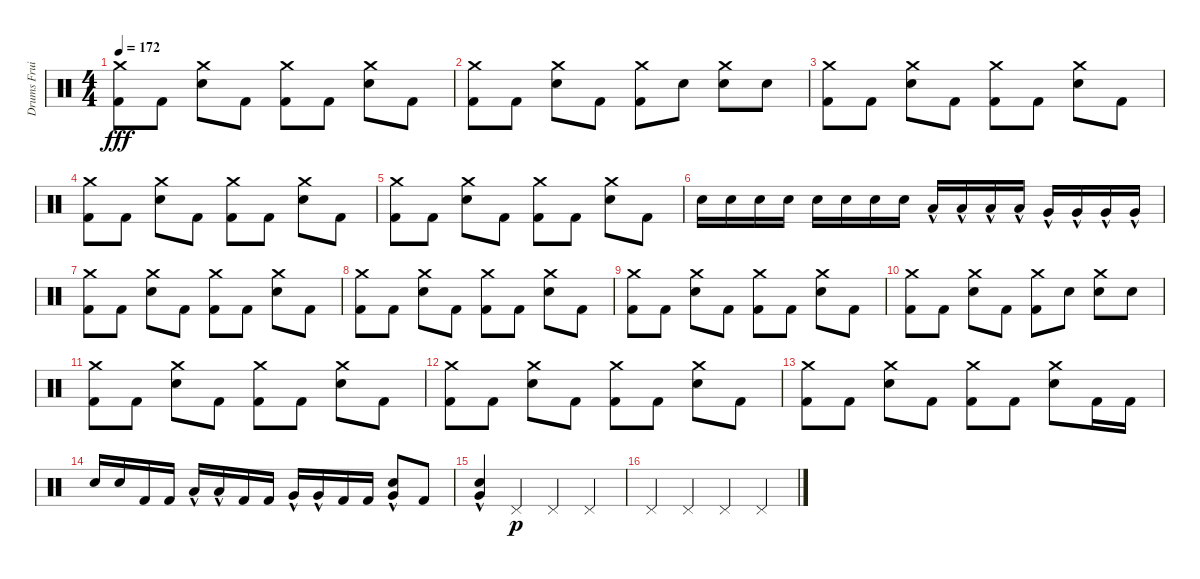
\track ("Drums Fruity Lexia" "Drums Frui") {instrument percussion}
\staff {score}
\articulation defaults
\ts (4 4)
\tempo 172
\clef neutral
\ks c
("Crash medium (hit)" "Kick (hit) 2").8{dy fff} "Kick (hit) 2".8 ("Crash medium (hit)" "Electric Snare (hit)").8 "Kick (hit) 2".8 ("Crash medium (hit)" "Kick (hit) 2").8 "Kick (hit) 2".8 ("Crash medium (hit)" "Electric Snare (hit)").8 "Kick (hit) 2".8 |
("Crash medium (hit)" "Kick (hit) 2").8 "Kick (hit) 2".8 ("Crash medium (hit)" "Electric Snare (hit)").8 "Kick (hit) 2".8 ("Crash medium (hit)" "Kick (hit) 2").8 "Electric Snare (hit)".8 ("Crash medium (hit)" "Electric Snare (hit)").8 "Electric Snare (hit)".8 |
("Crash medium (hit)" "Kick (hit) 2").8 "Kick (hit) 2".8 ("Crash medium (hit)" "Electric Snare (hit)").8 "Kick (hit) 2".8 ("Crash medium (hit)" "Kick (hit) 2").8 "Kick (hit) 2".8 ("Crash medium (hit)" "Electric Snare (hit)").8 "Kick (hit) 2".8 |
("Crash medium (hit)" "Kick (hit) 2").8 "Kick (hit) 2".8 ("Crash medium (hit)" "Electric Snare (hit)").8 "Kick (hit) 2".8 ("Crash medium (hit)" "Kick (hit) 2").8 "Kick (hit) 2".8 ("Crash medium (hit)" "Electric Snare (hit)").8 "Kick (hit) 2".8 |
("Crash medium (hit)" "Kick (hit) 2").8 "Kick (hit) 2".8 ("Crash medium (hit)" "Electric Snare (hit)").8 "Kick (hit) 2".8 ("Crash medium (hit)" "Kick (hit) 2").8 "Kick (hit) 2".8 ("Crash medium (hit)" "Electric Snare (hit)").8 "Kick (hit) 2".8 |
"Electric Snare (hit)".16 "Electric Snare (hit)".16 "Electric Snare (hit)".16 "Electric Snare (hit)".16 "Electric Snare (hit)".16 "Electric Snare (hit)".16 "Electric Snare (hit)".16 "Electric Snare (hit)".16 "Low Tom (hit)"{hac}.16 "Low Tom (hit)"{hac}.16 "Low Tom (hit)"{hac}.16 "Low Tom (hit)"{hac}.16 "Very Low Tom (hit)"{hac}.16 "Very Low Tom (hit)"{hac}.16 "Very Low Tom (hit)"{hac}.16 "Very Low Tom (hit)"{hac}.16 |
("Crash medium (hit)" "Kick (hit) 2").8 "Kick (hit) 2".8 ("Crash medium (hit)" "Electric Snare (hit)").8 "Kick (hit) 2".8 ("Crash medium (hit)" "Kick (hit) 2").8 "Kick (hit) 2".8 ("Crash medium (hit)" "Electric Snare (hit)").8 "Kick (hit) 2".8 |
("Crash medium (hit)" "Kick (hit) 2").8 "Kick (hit) 2".8 ("Crash medium (hit)" "Electric Snare (hit)").8 "Kick (hit) 2".8 ("Crash medium (hit)" "Kick (hit) 2").8 "Kick (hit) 2".8 ("Crash medium (hit)" "Electric Snare (hit)").8 "Kick (hit) 2".8 |
("Crash medium (hit)" "Kick (hit) 2").8 "Kick (hit) 2".8 ("Crash medium (hit)" "Electric Snare (hit)").8 "Kick (hit) 2".8 ("Crash medium (hit)" "Kick (hit) 2").8 "Kick (hit) 2".8 ("Crash medium (hit)" "Electric Snare (hit)").8 "Kick (hit) 2".8 |
("Crash medium (hit)" "Kick (hit) 2").8 "Kick (hit) 2".8 ("Crash medium (hit)" "Electric Snare (hit)").8 "Kick (hit) 2".8 ("Crash medium (hit)" "Kick (hit) 2").8 "Electric Snare (hit)".8 ("Crash medium (hit)" "Electric Snare (hit)").8 "Electric Snare (hit)".8 |
("Crash medium (hit)" "Kick (hit) 2").8 "Kick (hit) 2".8 ("Crash medium (hit)" "Electric Snare (hit)").8 "Kick (hit) 2".8 ("Crash medium (hit)" "Kick (hit) 2").8 "Kick (hit) 2".8 ("Crash medium (hit)" "Electric Snare (hit)").8 "Kick (hit) 2".8 |
("Crash medium (hit)" "Kick (hit) 2").8 "Kick (hit) 2".8 ("Crash medium (hit)" "Electric Snare (hit)").8 "Kick (hit) 2".8 ("Crash medium (hit)" "Kick (hit) 2").8 "Kick (hit) 2".8 ("Crash medium (hit)" "Electric Snare (hit)").8 "Kick (hit) 2".8 |
("Crash medium (hit)" "Kick (hit) 2").8 "Kick (hit) 2".8 ("Crash medium (hit)" "Electric Snare (hit)").8 "Kick (hit) 2".8 ("Crash medium (hit)" "Kick (hit) 2").8 "Kick (hit) 2".8 ("Crash medium (hit)" "Electric Snare (hit)").8 "Kick (hit) 2".16 "Kick (hit) 2".16 |
"Electric Snare (hit)".16 "Electric Snare (hit)".16 "Kick (hit) 2".16 "Kick (hit) 2".16 "Low Tom (hit)"{hac}.16 "Low Tom (hit)"{hac}.16 "Kick (hit) 2".16 "Kick (hit) 2".16 "Very Low Tom (hit)"{hac}.16 "Very Low Tom (hit)"{hac}.16 "Kick (hit) 2".16 "Kick (hit) 2".16 ("Electric Snare (hit)" "Very Low Tom (hit)"{hac}).8 "Kick (hit) 2".8 |
("Electric Snare (hit)" "Very Low Tom (hit)"{hac}).4 "Pedal Hi-Hat (hit)".4{dy p} "Pedal Hi-Hat (hit)".4 "Pedal Hi-Hat (hit)".4 |
"Pedal Hi-Hat (hit)".4 "Pedal Hi-Hat (hit)".4 "Pedal Hi-Hat (hit)".4 "Pedal Hi-Hat (hit)".4
